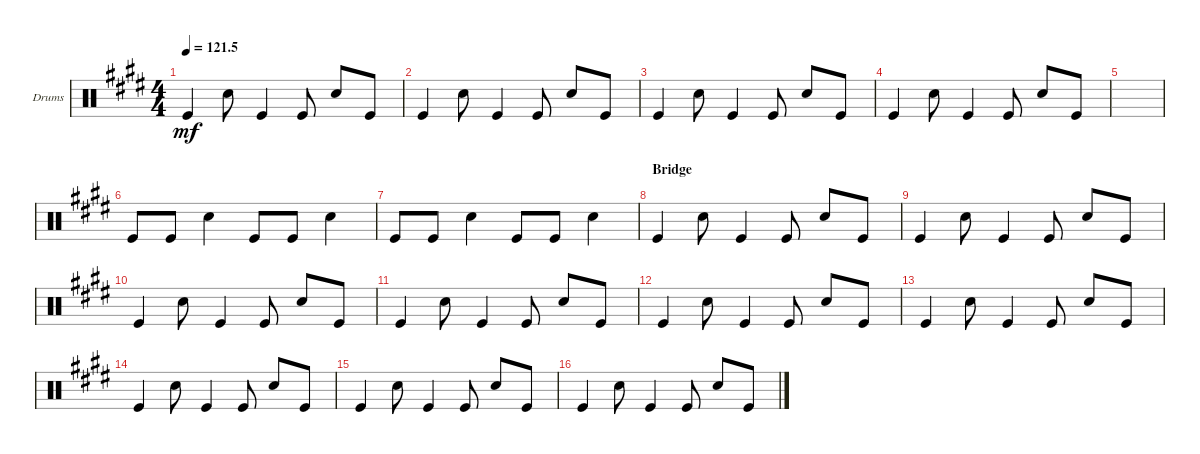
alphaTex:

\defaultSystemsLayout 4
\bracketExtendMode groupsimilarinstruments
\firstSystemTrackNameOrientation horizontal
\otherSystemsTrackNameOrientation horizontal
\track ("Drumkit" "Drums") {solo instrument percussion}
\staff {score}
\articulation defaults
\ts (4 4)
\tempo
121.5
\accidentals auto
\clef neutral
\ottava regular
\simile none
\ks e "Kick (hit)".4{dy mf} "Snare (hit) 2".8 "Kick (hit)".4 "Kick (hit)".8 "Snare (hit) 2".8 "Kick (hit)".8
|
"Kick (hit)".4 "Snare (hit) 2".8 "Kick (hit)".4 "Kick (hit)".8 "Snare (hit) 2".8 "Kick (hit)".8 |
"Kick (hit)".4 "Snare (hit) 2".8 "Kick (hit)".4 "Kick (hit)".8 "Snare (hit) 2".8 "Kick (hit)".8 |
"Kick (hit)".4 "Snare (hit) 2".8 "Kick (hit)".4 "Kick (hit)".8 "Snare (hit) 2".8 "Kick (hit)".8 |
|
"Kick (hit)".8 "Kick (hit)".8 "Snare (hit) 2".4 "Kick (hit)".8 "Kick (hit)".8 "Snare (hit) 2".4 |
"Kick (hit)".8 "Kick (hit)".8 "Snare (hit) 2".4 "Kick (hit)".8 "Kick (hit)".8 "Snare (hit) 2".4 |
\section ("" "Bridge")
"Kick (hit)".4 "Snare (hit) 2".8 "Kick (hit)".4 "Kick (hit)".8 "Snare (hit) 2".8 "Kick (hit)".8 |
"Kick (hit)".4 "Snare (hit) 2".8 "Kick (hit)".4 "Kick (hit)".8 "Snare (hit) 2".8 "Kick (hit)".8 |
"Kick (hit)".4 "Snare (hit) 2".8 "Kick (hit)".4 "Kick (hit)".8 "Snare (hit) 2".8 "Kick (hit)".8 |
"Kick (hit)".4 "Snare (hit) 2".8 "Kick (hit)".4 "Kick (hit)".8 "Snare (hit) 2".8 "Kick (hit)".8 |
"Kick (hit)".4 "Snare (hit) 2".8 "Kick (hit)".4 "Kick (hit)".8 "Snare (hit) 2".8 "Kick (hit)".8 |
"Kick (hit)".4 "Snare (hit) 2".8 "Kick (hit)".4 "Kick (hit)".8 "Snare (hit) 2".8 "Kick (hit)".8 |
"Kick (hit)".4 "Snare (hit) 2".8 "Kick (hit)".4 "Kick (hit)".8 "Snare (hit) 2".8 "Kick (hit)".8 |
"Kick (hit)".4 "Snare (hit) 2".8 "Kick (hit)".4 "Kick (hit)".8 "Snare (hit) 2".8 "Kick (hit)".8 |
"Kick (hit)".4 "Snare (hit) 2".8 "Kick (hit)".4 "Kick (hit)".8 "Snare (hit) 2".8 "Kick (hit)".8
